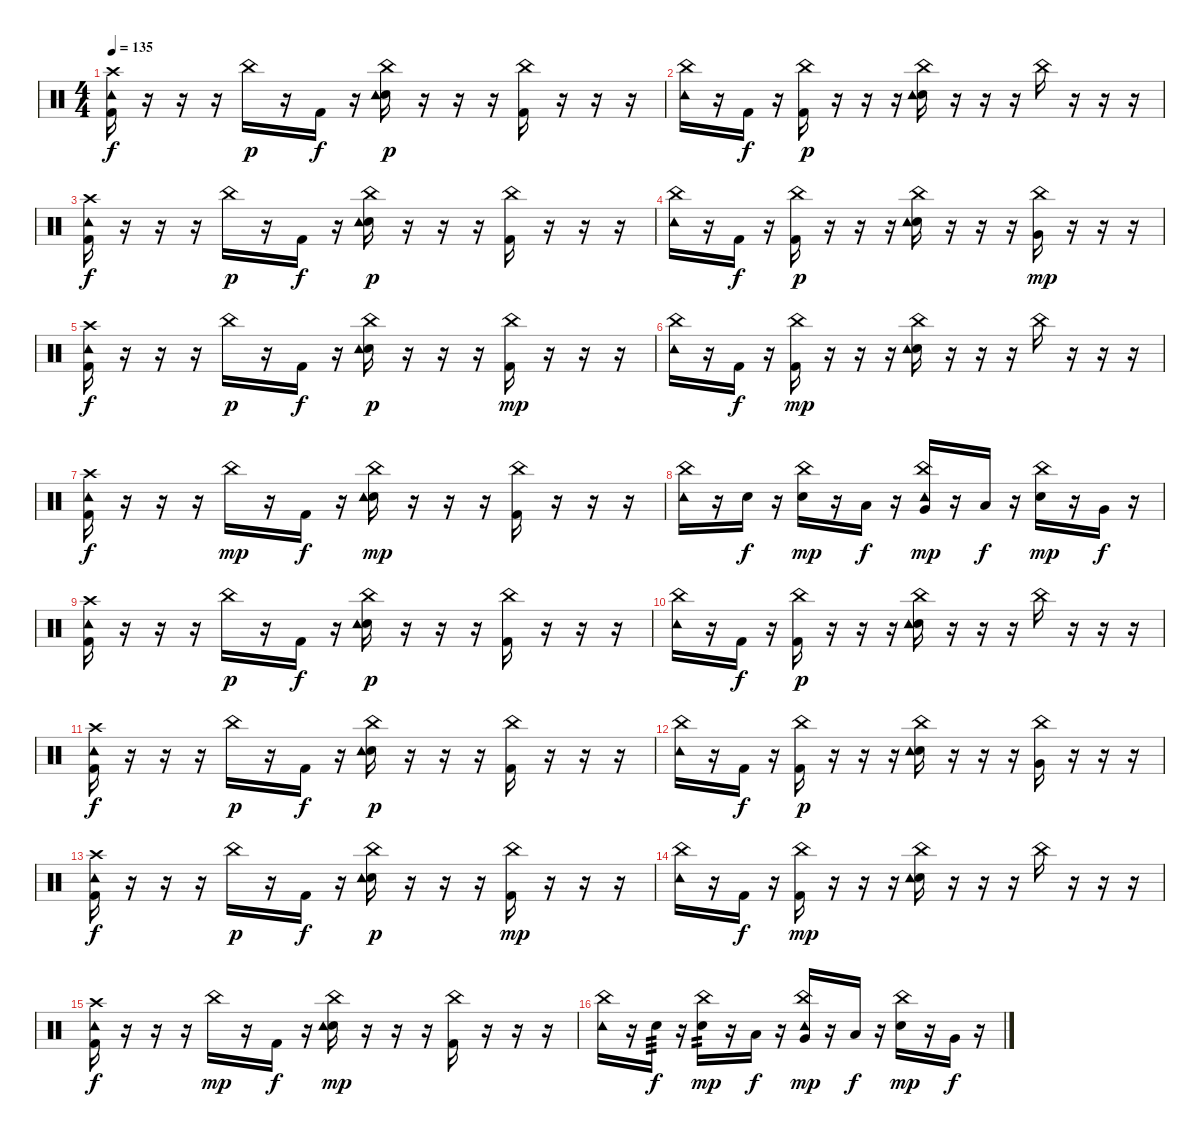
\track (" " " ") {instrument percussion}
\staff {score}
\articulation defaults
\ts (4 4)
\tempo 135
\clef neutral
\ks c
("Crash high (hit)" "Tambourine (hit)" "Kick (hit) 2").16{dy f} r.16 r.16 r.16 "China (hit)".16{dy p} r.16 "Kick (hit) 2".16{dy f} r.16 ("China (hit)" "Electric Snare (hit)" "Tambourine (hit)").16{dy p} r.16 r.16 r.16 ("China (hit)" "Kick (hit) 2").16 r.16 r.16 r.16 |
("China (hit)" "Tambourine (hit)").16 r.16 "Kick (hit) 2".16{dy f} r.16 ("China (hit)" "Kick (hit) 2").16{dy p} r.16 r.16 r.16 ("China (hit)" "Electric Snare (hit)" "Tambourine (hit)").16 r.16 r.16 r.16 "China (hit)".16 r.16 r.16 r.16 |
("Crash high (hit)" "Tambourine (hit)" "Kick (hit) 2").16{dy f} r.16 r.16 r.16 "China (hit)".16{dy p} r.16 "Kick (hit) 2".16{dy f} r.16 ("China (hit)" "Electric Snare (hit)" "Tambourine (hit)").16{dy p} r.16 r.16 r.16 ("China (hit)" "Kick (hit) 2").16 r.16 r.16 r.16 |
("China (hit)" "Tambourine (hit)").16 r.16 "Kick (hit) 2".16{dy f} r.16 ("China (hit)" "Kick (hit) 2").16{dy p} r.16 r.16 r.16 ("China (hit)" "Electric Snare (hit)" "Tambourine (hit)").16 r.16 r.16 r.16 ("China (hit)" "Very Low Tom (hit)").16{dy mp} r.16 r.16 r.16 |
("Crash high (hit)" "Tambourine (hit)" "Kick (hit) 2").16{dy f} r.16 r.16 r.16 "China (hit)".16{dy p} r.16 "Kick (hit) 2".16{dy f} r.16 ("China (hit)" "Electric Snare (hit)" "Tambourine (hit)").16{dy p} r.16 r.16 r.16 ("China (hit)" "Kick (hit) 2").16{dy mp} r.16 r.16 r.16 |
("China (hit)" "Tambourine (hit)").16 r.16 "Kick (hit) 2".16{dy f} r.16 ("China (hit)" "Kick (hit) 2").16{dy mp} r.16 r.16 r.16 ("China (hit)" "Electric Snare (hit)" "Tambourine (hit)").16 r.16 r.16 r.16 "China (hit)".16 r.16 r.16 r.16 |
("Crash high (hit)" "Tambourine (hit)" "Kick (hit) 2").16{dy f} r.16 r.16 r.16 "China (hit)".16{dy mp} r.16 "Kick (hit) 2".16{dy f} r.16 ("China (hit)" "Electric Snare (hit)" "Tambourine (hit)").16{dy mp} r.16 r.16 r.16 ("China (hit)" "Kick (hit) 2").16 r.16 r.16 r.16 |
("China (hit)" "Tambourine (hit)").16 r.16 "Electric Snare (hit)".16{dy f} r.16 ("China (hit)" "Electric Snare (hit)").16{dy mp} r.16 "Low Tom (hit)".16{dy f} r.16 ("China (hit)" "Very Low Tom (hit)" "Tambourine (hit)").16{dy mp} r.16 "Low Tom (hit)".16{dy f} r.16 ("China (hit)" "Electric Snare (hit)").16{dy mp} r.16 "Very Low Tom (hit)".16{dy f} r.16 |
("Crash high (hit)" "Tambourine (hit)" "Kick (hit) 2").16 r.16 r.16 r.16 "China (hit)".16{dy p} r.16 "Kick (hit) 2".16{dy f} r.16 ("China (hit)" "Electric Snare (hit)" "Tambourine (hit)").16{dy p} r.16 r.16 r.16 ("China (hit)" "Kick (hit) 2").16 r.16 r.16 r.16 |
("China (hit)" "Tambourine (hit)").16 r.16 "Kick (hit) 2".16{dy f} r.16 ("China (hit)" "Kick (hit) 2").16{dy p} r.16 r.16 r.16 ("China (hit)" "Electric Snare (hit)" "Tambourine (hit)").16 r.16 r.16 r.16 "China (hit)".16 r.16 r.16 r.16 |
("Crash high (hit)" "Tambourine (hit)" "Kick (hit) 2").16{dy f} r.16 r.16 r.16 "China (hit)".16{dy p} r.16 "Kick (hit) 2".16{dy f} r.16 ("China (hit)" "Electric Snare (hit)" "Tambourine (hit)").16{dy p} r.16 r.16 r.16 ("China (hit)" "Kick (hit) 2").16 r.16 r.16 r.16 |
("China (hit)" "Tambourine (hit)").16 r.16 "Kick (hit) 2".16{dy f} r.16 ("China (hit)" "Kick (hit) 2").16{dy p} r.16 r.16 r.16 ("China (hit)" "Electric Snare (hit)" "Tambourine (hit)").16 r.16 r.16 r.16 ("China (hit)" "Very Low Tom (hit)").16 r.16 r.16 r.16 |
("Crash high (hit)" "Tambourine (hit)" "Kick (hit) 2").16{dy f} r.16 r.16 r.16 "China (hit)".16{dy p} r.16 "Kick (hit) 2".16{dy f} r.16 ("China (hit)" "Electric Snare (hit)" "Tambourine (hit)").16{dy p} r.16 r.16 r.16 ("China (hit)" "Kick (hit) 2").16{dy mp} r.16 r.16 r.16 |
("China (hit)" "Tambourine (hit)").16 r.16 "Kick (hit) 2".16{dy f} r.16 ("China (hit)" "Kick (hit) 2").16{dy mp} r.16 r.16 r.16 ("China (hit)" "Electric Snare (hit)" "Tambourine (hit)").16 r.16 r.16 r.16 "China (hit)".16 r.16 r.16 r.16 |
("Crash high (hit)" "Tambourine (hit)" "Kick (hit) 2").16{dy f} r.16 r.16 r.16 "China (hit)".16{dy mp} r.16 "Kick (hit) 2".16{dy f} r.16 ("China (hit)" "Electric Snare (hit)" "Tambourine (hit)").16{dy mp} r.16 r.16 r.16 ("China (hit)" "Kick (hit) 2").16 r.16 r.16 r.16 |
("China (hit)" "Tambourine (hit)").16 r.16 "Electric Snare (hit)".16{tp 3 dy f} r.16 ("China (hit)" "Electric Snare (hit)").16{tp 2 dy mp} r.16 "Low Tom (hit)".16{dy f} r.16 ("China (hit)" "Very Low Tom (hit)" "Tambourine (hit)").16{dy mp} r.16 "Low Tom (hit)".16{dy f} r.16 ("China (hit)" "Electric Snare (hit)").16{dy mp} r.16 "Very Low Tom (hit)".16{dy f} r.16
